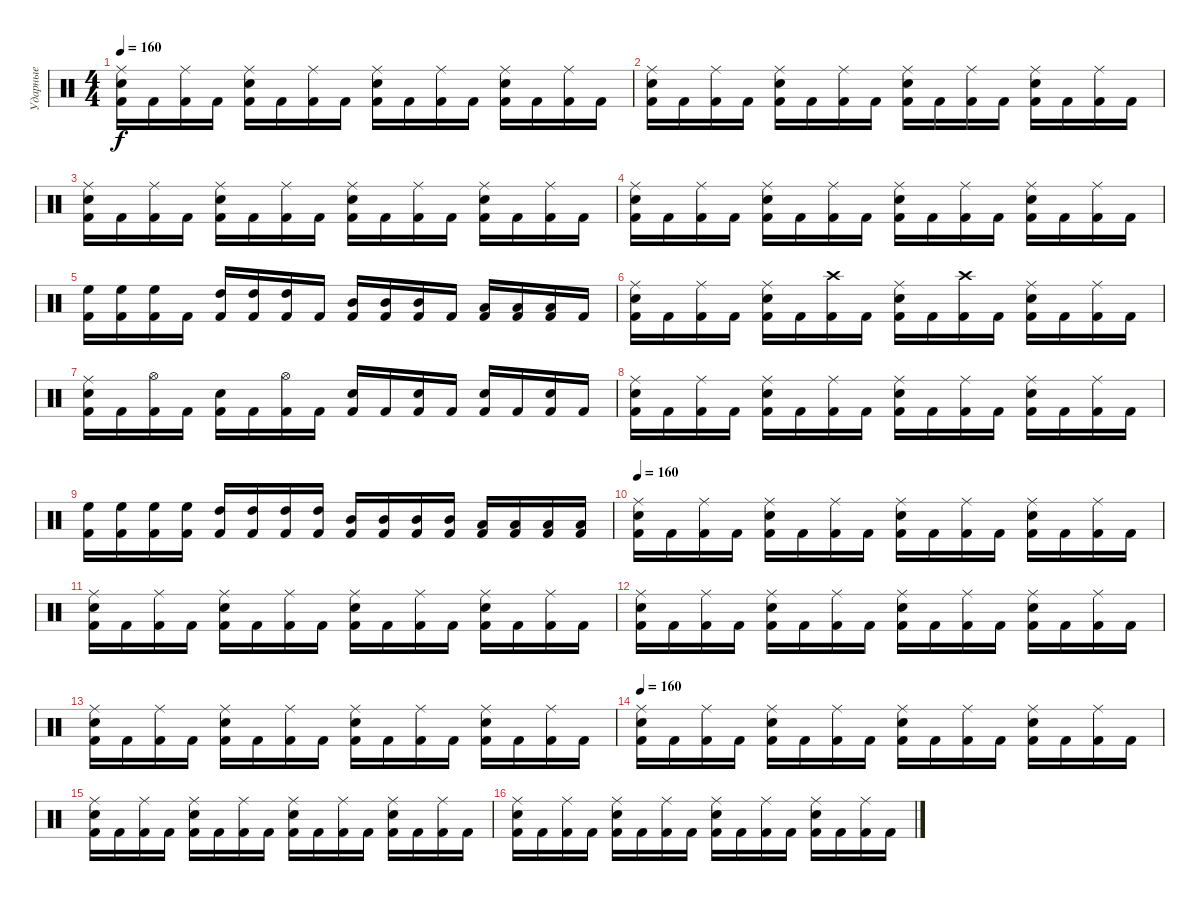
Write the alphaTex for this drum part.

\track ("Ударные" "Ударные") {instrument percussion}
\staff {score}
\articulation defaults
\ts (4 4)
\tempo 160
\clef neutral
\ks c
("Kick (hit) 2" "Ride (middle)" "Snare (hit) 2").16{dy f} "Kick (hit) 2".16 ("Kick (hit) 2" "Ride (middle)").16 "Kick (hit) 2".16 ("Kick (hit) 2" "Ride (middle)" "Snare (hit) 2").16 "Kick (hit) 2".16 ("Kick (hit) 2" "Ride (middle)").16 "Kick (hit) 2".16 ("Kick (hit) 2" "Ride (middle)" "Snare (hit) 2").16 "Kick (hit) 2".16 ("Kick (hit) 2" "Ride (middle)").16 "Kick (hit) 2".16 ("Kick (hit) 2" "Ride (middle)" "Snare (hit) 2").16 "Kick (hit) 2".16 ("Kick (hit) 2" "Ride (middle)").16 "Kick (hit) 2".16 |
("Kick (hit) 2" "Ride (middle)" "Snare (hit) 2").16 "Kick (hit) 2".16 ("Kick (hit) 2" "Ride (middle)").16 "Kick (hit) 2".16 ("Kick (hit) 2" "Ride (middle)" "Snare (hit) 2").16 "Kick (hit) 2".16 ("Kick (hit) 2" "Ride (middle)").16 "Kick (hit) 2".16 ("Kick (hit) 2" "Ride (middle)" "Snare (hit) 2").16 "Kick (hit) 2".16 ("Kick (hit) 2" "Ride (middle)").16 "Kick (hit) 2".16 ("Kick (hit) 2" "Ride (middle)" "Snare (hit) 2").16 "Kick (hit) 2".16 ("Kick (hit) 2" "Ride (middle)").16 "Kick (hit) 2".16 |
("Kick (hit) 2" "Ride (middle)" "Snare (hit) 2").16 "Kick (hit) 2".16 ("Kick (hit) 2" "Ride (middle)").16 "Kick (hit) 2".16 ("Kick (hit) 2" "Ride (middle)" "Snare (hit) 2").16 "Kick (hit) 2".16 ("Kick (hit) 2" "Ride (middle)").16 "Kick (hit) 2".16 ("Kick (hit) 2" "Ride (middle)" "Snare (hit) 2").16 "Kick (hit) 2".16 ("Kick (hit) 2" "Ride (middle)").16 "Kick (hit) 2".16 ("Kick (hit) 2" "Ride (middle)" "Snare (hit) 2").16 "Kick (hit) 2".16 ("Kick (hit) 2" "Ride (middle)").16 "Kick (hit) 2".16 |
("Kick (hit) 2" "Ride (middle)" "Snare (hit) 2").16 "Kick (hit) 2".16 ("Kick (hit) 2" "Ride (middle)").16 "Kick (hit) 2".16 ("Kick (hit) 2" "Ride (middle)" "Snare (hit) 2").16 "Kick (hit) 2".16 ("Kick (hit) 2" "Ride (middle)").16 "Kick (hit) 2".16 ("Kick (hit) 2" "Ride (middle)" "Snare (hit) 2").16 "Kick (hit) 2".16 ("Kick (hit) 2" "Ride (middle)").16 "Kick (hit) 2".16 ("Kick (hit) 2" "Ride (middle)" "Snare (hit) 2").16 "Kick (hit) 2".16 ("Kick (hit) 2" "Ride (middle)").16 "Kick (hit) 2".16 |
("Kick (hit) 2" "High Floor Tom (hit)").16 ("Kick (hit) 2" "High Floor Tom (hit)").16 ("Kick (hit) 2" "High Floor Tom (hit)").16 "Kick (hit) 2".16 ("Kick (hit) 2" "High Tom (hit)").16 ("Kick (hit) 2" "High Tom (hit)").16 ("Kick (hit) 2" "High Tom (hit)").16 "Kick (hit) 2".16 ("Kick (hit) 2" "Mid Tom (hit)").16 ("Kick (hit) 2" "Mid Tom (hit)").16 ("Kick (hit) 2" "Mid Tom (hit)").16 "Kick (hit) 2".16 ("Kick (hit) 2" "Low Tom (hit)").16 ("Kick (hit) 2" "Low Tom (hit)").16 ("Kick (hit) 2" "Low Tom (hit)").16 "Kick (hit) 2".16 |
("Kick (hit) 2" "Ride (middle)" "Snare (hit) 2").16 "Kick (hit) 2".16 ("Kick (hit) 2" "Ride (middle)").16 "Kick (hit) 2".16 ("Kick (hit) 2" "Ride (middle)" "Snare (hit) 2").16 "Kick (hit) 2".16 ("Kick (hit) 2" "Crash high (hit)").16 "Kick (hit) 2".16 ("Kick (hit) 2" "Ride (middle)" "Snare (hit) 2").16 "Kick (hit) 2".16 ("Kick (hit) 2" "Crash high (hit)").16 "Kick (hit) 2".16 ("Kick (hit) 2" "Ride (middle)" "Snare (hit) 2").16 "Kick (hit) 2".16 ("Kick (hit) 2" "Ride (middle)").16 "Kick (hit) 2".16 |
("Kick (hit) 2" "Ride (middle)" "Snare (hit) 2").16 "Kick (hit) 2".16 ("Kick (hit) 2" "Hi-Hat (open)").16 "Kick (hit) 2".16 ("Kick (hit) 2" "Snare (hit) 2").16 "Kick (hit) 2".16 ("Kick (hit) 2" "Hi-Hat (open)").16 "Kick (hit) 2".16 ("Kick (hit) 2" "Snare (hit) 2").16 "Kick (hit) 2".16 ("Kick (hit) 2" "Snare (hit) 2").16 "Kick (hit) 2".16 ("Kick (hit) 2" "Snare (hit) 2").16 "Kick (hit) 2".16 ("Kick (hit) 2" "Snare (hit) 2").16 "Kick (hit) 2".16 |
("Kick (hit) 2" "Ride (middle)" "Snare (hit) 2").16 "Kick (hit) 2".16 ("Kick (hit) 2" "Ride (middle)").16 "Kick (hit) 2".16 ("Kick (hit) 2" "Ride (middle)" "Snare (hit) 2").16 "Kick (hit) 2".16 ("Kick (hit) 2" "Ride (middle)").16 "Kick (hit) 2".16 ("Kick (hit) 2" "Ride (middle)" "Snare (hit) 2").16 "Kick (hit) 2".16 ("Kick (hit) 2" "Ride (middle)").16 "Kick (hit) 2".16 ("Kick (hit) 2" "Ride (middle)" "Snare (hit) 2").16 "Kick (hit) 2".16 ("Kick (hit) 2" "Ride (middle)").16 "Kick (hit) 2".16 |
("Kick (hit) 2" "High Floor Tom (hit)").16 ("Kick (hit) 2" "High Floor Tom (hit)").16 ("Kick (hit) 2" "High Floor Tom (hit)").16 ("Kick (hit) 2" "High Floor Tom (hit)").16 ("Kick (hit) 2" "High Tom (hit)").16 ("Kick (hit) 2" "High Tom (hit)").16 ("Kick (hit) 2" "High Tom (hit)").16 ("Kick (hit) 2" "High Tom (hit)").16 ("Kick (hit) 2" "Mid Tom (hit)").16 ("Kick (hit) 2" "Mid Tom (hit)").16 ("Kick (hit) 2" "Mid Tom (hit)").16 ("Kick (hit) 2" "Mid Tom (hit)").16 ("Kick (hit) 2" "Low Tom (hit)").16 ("Kick (hit) 2" "Low Tom (hit)").16 ("Kick (hit) 2" "Low Tom (hit)").16 ("Kick (hit) 2" "Low Tom (hit)").16 |
\tempo 160
("Kick (hit) 2" "Ride (middle)" "Snare (hit) 2").16 "Kick (hit) 2".16 ("Kick (hit) 2" "Ride (middle)").16 "Kick (hit) 2".16 ("Kick (hit) 2" "Ride (middle)" "Snare (hit) 2").16 "Kick (hit) 2".16 ("Kick (hit) 2" "Ride (middle)").16 "Kick (hit) 2".16 ("Kick (hit) 2" "Ride (middle)" "Snare (hit) 2").16 "Kick (hit) 2".16 ("Kick (hit) 2" "Ride (middle)").16 "Kick (hit) 2".16 ("Kick (hit) 2" "Ride (middle)" "Snare (hit) 2").16 "Kick (hit) 2".16 ("Kick (hit) 2" "Ride (middle)").16 "Kick (hit) 2".16 |
("Kick (hit) 2" "Ride (middle)" "Snare (hit) 2").16 "Kick (hit) 2".16 ("Kick (hit) 2" "Ride (middle)").16 "Kick (hit) 2".16 ("Kick (hit) 2" "Ride (middle)" "Snare (hit) 2").16 "Kick (hit) 2".16 ("Kick (hit) 2" "Ride (middle)").16 "Kick (hit) 2".16 ("Kick (hit) 2" "Ride (middle)" "Snare (hit) 2").16 "Kick (hit) 2".16 ("Kick (hit) 2" "Ride (middle)").16 "Kick (hit) 2".16 ("Kick (hit) 2" "Ride (middle)" "Snare (hit) 2").16 "Kick (hit) 2".16 ("Kick (hit) 2" "Ride (middle)").16 "Kick (hit) 2".16 |
("Kick (hit) 2" "Ride (middle)" "Snare (hit) 2").16 "Kick (hit) 2".16 ("Kick (hit) 2" "Ride (middle)").16 "Kick (hit) 2".16 ("Kick (hit) 2" "Ride (middle)" "Snare (hit) 2").16 "Kick (hit) 2".16 ("Kick (hit) 2" "Ride (middle)").16 "Kick (hit) 2".16 ("Kick (hit) 2" "Ride (middle)" "Snare (hit) 2").16 "Kick (hit) 2".16 ("Kick (hit) 2" "Ride (middle)").16 "Kick (hit) 2".16 ("Kick (hit) 2" "Ride (middle)" "Snare (hit) 2").16 "Kick (hit) 2".16 ("Kick (hit) 2" "Ride (middle)").16 "Kick (hit) 2".16 |
("Kick (hit) 2" "Ride (middle)" "Snare (hit) 2").16 "Kick (hit) 2".16 ("Kick (hit) 2" "Ride (middle)").16 "Kick (hit) 2".16 ("Kick (hit) 2" "Ride (middle)" "Snare (hit) 2").16 "Kick (hit) 2".16 ("Kick (hit) 2" "Ride (middle)").16 "Kick (hit) 2".16 ("Kick (hit) 2" "Ride (middle)" "Snare (hit) 2").16 "Kick (hit) 2".16 ("Kick (hit) 2" "Ride (middle)").16 "Kick (hit) 2".16 ("Kick (hit) 2" "Ride (middle)" "Snare (hit) 2").16 "Kick (hit) 2".16 ("Kick (hit) 2" "Ride (middle)").16 "Kick (hit) 2".16 |
\tempo 160
("Kick (hit) 2" "Ride (middle)" "Snare (hit) 2").16 "Kick (hit) 2".16 ("Kick (hit) 2" "Ride (middle)").16 "Kick (hit) 2".16 ("Kick (hit) 2" "Ride (middle)" "Snare (hit) 2").16 "Kick (hit) 2".16 ("Kick (hit) 2" "Ride (middle)").16 "Kick (hit) 2".16 ("Kick (hit) 2" "Ride (middle)" "Snare (hit) 2").16 "Kick (hit) 2".16 ("Kick (hit) 2" "Ride (middle)").16 "Kick (hit) 2".16 ("Kick (hit) 2" "Ride (middle)" "Snare (hit) 2").16 "Kick (hit) 2".16 ("Kick (hit) 2" "Ride (middle)").16 "Kick (hit) 2".16 |
("Kick (hit) 2" "Ride (middle)" "Snare (hit) 2").16 "Kick (hit) 2".16 ("Kick (hit) 2" "Ride (middle)").16 "Kick (hit) 2".16 ("Kick (hit) 2" "Ride (middle)" "Snare (hit) 2").16 "Kick (hit) 2".16 ("Kick (hit) 2" "Ride (middle)").16 "Kick (hit) 2".16 ("Kick (hit) 2" "Ride (middle)" "Snare (hit) 2").16 "Kick (hit) 2".16 ("Kick (hit) 2" "Ride (middle)").16 "Kick (hit) 2".16 ("Kick (hit) 2" "Ride (middle)" "Snare (hit) 2").16 "Kick (hit) 2".16 ("Kick (hit) 2" "Ride (middle)").16 "Kick (hit) 2".16 |
("Kick (hit) 2" "Ride (middle)" "Snare (hit) 2").16 "Kick (hit) 2".16 ("Kick (hit) 2" "Ride (middle)").16 "Kick (hit) 2".16 ("Kick (hit) 2" "Ride (middle)" "Snare (hit) 2").16 "Kick (hit) 2".16 ("Kick (hit) 2" "Ride (middle)").16 "Kick (hit) 2".16 ("Kick (hit) 2" "Ride (middle)" "Snare (hit) 2").16 "Kick (hit) 2".16 ("Kick (hit) 2" "Ride (middle)").16 "Kick (hit) 2".16 ("Kick (hit) 2" "Ride (middle)" "Snare (hit) 2").16 "Kick (hit) 2".16 ("Kick (hit) 2" "Ride (middle)").16 "Kick (hit) 2".16
